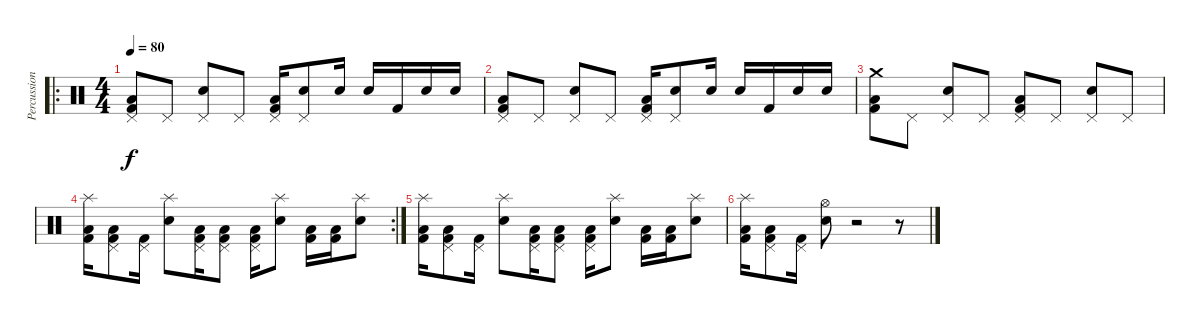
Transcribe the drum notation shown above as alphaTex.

\track ("Percussions" "Percussion") {instrument percussion}
\staff {score}
\articulation defaults
\ro
\ts (4 4)
\tempo 80
\clef neutral
\ks c
("Pedal Hi-Hat (hit)" "Kick (hit) 2" "Low Floor Tom (hit)").8{dy f} "Pedal Hi-Hat (hit)".8 ("Pedal Hi-Hat (hit)" "Electric Snare (hit)").8 "Pedal Hi-Hat (hit)".8 ("Pedal Hi-Hat (hit)" "Kick (hit) 2" "Low Floor Tom (hit)").16 ("Pedal Hi-Hat (hit)" "Electric Snare (hit)").8 "Electric Snare (hit)".16 "Electric Snare (hit)".16 "Kick (hit) 2".16 "Electric Snare (hit)".16 "Electric Snare (hit)".16 |
("Pedal Hi-Hat (hit)" "Kick (hit) 2" "Low Floor Tom (hit)").8 "Pedal Hi-Hat (hit)".8 ("Pedal Hi-Hat (hit)" "Electric Snare (hit)").8 "Pedal Hi-Hat (hit)".8 ("Pedal Hi-Hat (hit)" "Kick (hit) 2" "Low Floor Tom (hit)").16 ("Pedal Hi-Hat (hit)" "Electric Snare (hit)").8 "Electric Snare (hit)".16 "Electric Snare (hit)".16 "Kick (hit) 2".16 "Electric Snare (hit)".16 "Electric Snare (hit)".16 |
("Crash medium (hit)" "Kick (hit) 2" "Low Floor Tom (hit)").8 "Pedal Hi-Hat (hit)".8 ("Pedal Hi-Hat (hit)" "Electric Snare (hit)").8 "Pedal Hi-Hat (hit)".8 ("Pedal Hi-Hat (hit)" "Kick (hit) 2" "Low Floor Tom (hit)").8 "Pedal Hi-Hat (hit)".8 ("Pedal Hi-Hat (hit)" "Electric Snare (hit)").8 "Pedal Hi-Hat (hit)".8 |
\rc 2
("Splash (hit)" "Kick (hit) 2" "Low Floor Tom (hit)").16 ("Pedal Hi-Hat (hit)" "Kick (hit) 2" "Low Floor Tom (hit)").8 ("Pedal Hi-Hat (hit)" "Kick (hit) 2").16 ("Splash (hit)" "Electric Snare (hit)").8 ("Pedal Hi-Hat (hit)" "Kick (hit) 2" "Low Floor Tom (hit)").16 ("Pedal Hi-Hat (hit)" "Kick (hit) 2" "Low Floor Tom (hit)").8 ("Pedal Hi-Hat (hit)" "Kick (hit) 2" "Low Floor Tom (hit)").16 ("Splash (hit)" "Electric Snare (hit)").8 ("Kick (hit) 2" "Low Floor Tom (hit)").16 ("Kick (hit) 2" "Low Floor Tom (hit)").16 ("Splash (hit)" "Electric Snare (hit)").8 |
("Splash (hit)" "Kick (hit) 2" "Low Floor Tom (hit)").16 ("Pedal Hi-Hat (hit)" "Kick (hit) 2" "Low Floor Tom (hit)").8 ("Pedal Hi-Hat (hit)" "Kick (hit) 2").16 ("Splash (hit)" "Electric Snare (hit)").8 ("Pedal Hi-Hat (hit)" "Kick (hit) 2" "Low Floor Tom (hit)").16 ("Pedal Hi-Hat (hit)" "Kick (hit) 2" "Low Floor Tom (hit)").8 ("Pedal Hi-Hat (hit)" "Kick (hit) 2" "Low Floor Tom (hit)").16 ("Splash (hit)" "Electric Snare (hit)").8 ("Kick (hit) 2" "Low Floor Tom (hit)").16 ("Kick (hit) 2" "Low Floor Tom (hit)").16 ("Splash (hit)" "Electric Snare (hit)").8 |
("Splash (hit)" "Kick (hit) 2" "Low Floor Tom (hit)").16 ("Pedal Hi-Hat (hit)" "Kick (hit) 2" "Low Floor Tom (hit)").8 ("Pedal Hi-Hat (hit)" "Kick (hit) 2").16 ("Hi-Hat (open)" "Electric Snare (hit)").8 r.2 r.8
